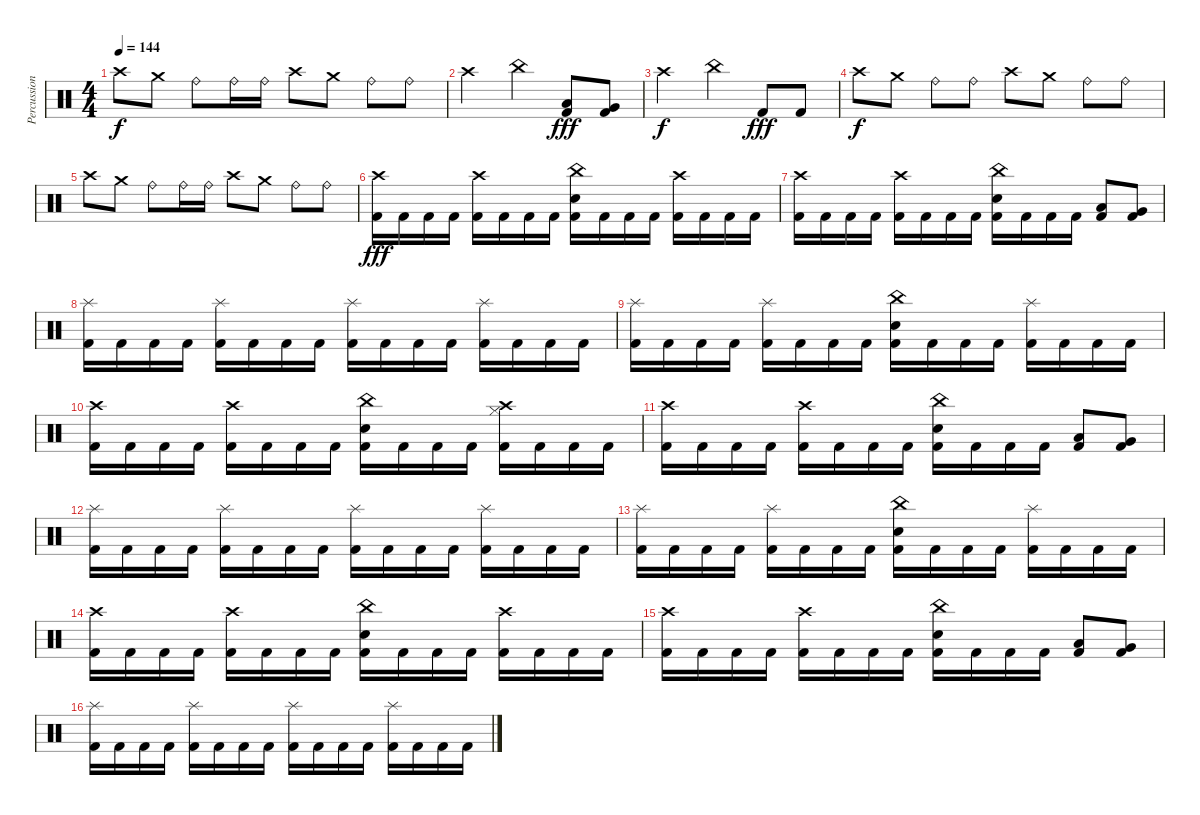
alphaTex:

\track ("Percussion" "Percussion") {instrument percussion}
\staff {score}
\articulation defaults
\ts (4 4)
\tempo 144
\clef neutral
\ks c "Crash high (hit)".8{dy f} "Crash medium (hit)".8 "Ride (bell)".8 "Ride (bell)".16 "Ride (bell)".16 "Crash high (hit)".8 "Crash medium (hit)".8 "Ride (bell)".8 "Ride (bell)".8
|
"Crash high (hit)".2 "China (hit)".4 ("Low Tom (hit)" "Kick (hit) 2").8{dy fff} ("Very Low Tom (hit)" "Kick (hit) 2").8 |
"Crash high (hit)".2{dy f} "China (hit)".4 "Kick (hit) 2".8{dy fff} "Kick (hit) 2".8 |
"Crash high (hit)".8{dy f} "Crash medium (hit)".8 "Ride (bell)".8 "Ride (bell)".8 "Crash high (hit)".8 "Crash medium (hit)".8 "Ride (bell)".8 "Ride (bell)".8 |
"Crash high (hit)".8 "Crash medium (hit)".8 "Ride (bell)".8 "Ride (bell)".16 "Ride (bell)".16 "Crash high (hit)".8 "Crash medium (hit)".8 "Ride (bell)".8 "Ride (bell)".8 |
("Crash high (hit)" "Kick (hit) 2").16{dy fff} "Kick (hit) 2".16 "Kick (hit) 2".16 "Kick (hit) 2".16 ("Crash high (hit)" "Kick (hit) 2").16 "Kick (hit) 2".16 "Kick (hit) 2".16 "Kick (hit) 2".16 ("China (hit)" "Electric Snare (hit)" "Kick (hit) 2").16 "Kick (hit) 2".16 "Kick (hit) 2".16 "Kick (hit) 2".16 ("Crash high (hit)" "Kick (hit) 2").16 "Kick (hit) 2".16 "Kick (hit) 2".16 "Kick (hit) 2".16 |
("Crash high (hit)" "Kick (hit) 2").16 "Kick (hit) 2".16 "Kick (hit) 2".16 "Kick (hit) 2".16 ("Crash high (hit)" "Kick (hit) 2").16 "Kick (hit) 2".16 "Kick (hit) 2".16 "Kick (hit) 2".16 ("China (hit)" "Electric Snare (hit)" "Kick (hit) 2").16 "Kick (hit) 2".16 "Kick (hit) 2".16 "Kick (hit) 2".16 ("Low Tom (hit)" "Kick (hit) 2").8 ("Very Low Tom (hit)" "Kick (hit) 2").8 |
("Splash (hit)" "Kick (hit) 2").16 "Kick (hit) 2".16 "Kick (hit) 2".16 "Kick (hit) 2".16 ("Splash (hit)" "Kick (hit) 2").16 "Kick (hit) 2".16 "Kick (hit) 2".16 "Kick (hit) 2".16 ("Splash (hit)" "Kick (hit) 2").16 "Kick (hit) 2".16 "Kick (hit) 2".16 "Kick (hit) 2".16 ("Splash (hit)" "Kick (hit) 2").16 "Kick (hit) 2".16 "Kick (hit) 2".16 "Kick (hit) 2".16 |
("Splash (hit)" "Kick (hit) 2").16{volume 11} "Kick (hit) 2".16 "Kick (hit) 2".16 "Kick (hit) 2".16 ("Splash (hit)" "Kick (hit) 2").16 "Kick (hit) 2".16 "Kick (hit) 2".16 "Kick (hit) 2".16 ("China (hit)" "Electric Snare (hit)" "Kick (hit) 2").16 "Kick (hit) 2".16 "Kick (hit) 2".16 "Kick (hit) 2".16 ("Splash (hit)" "Kick (hit) 2").16 "Kick (hit) 2".16 "Kick (hit) 2".16 "Kick (hit) 2".16 |
("Crash high (hit)" "Kick (hit) 2").16 "Kick (hit) 2".16 "Kick (hit) 2".16 "Kick (hit) 2".16 ("Crash high (hit)" "Kick (hit) 2").16 "Kick (hit) 2".16 "Kick (hit) 2".16 "Kick (hit) 2".16 ("China (hit)" "Electric Snare (hit)" "Kick (hit) 2").16 "Kick (hit) 2".16 "Kick (hit) 2".16 "Kick (hit) 2".16 ("Crash high (hit)" "Hi-Hat (closed)" "Kick (hit) 2").16 "Kick (hit) 2".16 "Kick (hit) 2".16 "Kick (hit) 2".16 |
("Crash high (hit)" "Kick (hit) 2").16{volume 10} "Kick (hit) 2".16 "Kick (hit) 2".16 "Kick (hit) 2".16 ("Crash high (hit)" "Kick (hit) 2").16 "Kick (hit) 2".16 "Kick (hit) 2".16 "Kick (hit) 2".16 ("China (hit)" "Electric Snare (hit)" "Kick (hit) 2").16 "Kick (hit) 2".16 "Kick (hit) 2".16 "Kick (hit) 2".16 ("Low Tom (hit)" "Kick (hit) 2").8 ("Very Low Tom (hit)" "Kick (hit) 2").8 |
("Splash (hit)" "Kick (hit) 2").16 "Kick (hit) 2".16 "Kick (hit) 2".16 "Kick (hit) 2".16 ("Splash (hit)" "Kick (hit) 2").16 "Kick (hit) 2".16 "Kick (hit) 2".16 "Kick (hit) 2".16 ("Splash (hit)" "Kick (hit) 2").16 "Kick (hit) 2".16 "Kick (hit) 2".16 "Kick (hit) 2".16 ("Splash (hit)" "Kick (hit) 2").16 "Kick (hit) 2".16 "Kick (hit) 2".16 "Kick (hit) 2".16 |
("Splash (hit)" "Kick (hit) 2").16{volume 8} "Kick (hit) 2".16 "Kick (hit) 2".16 "Kick (hit) 2".16 ("Splash (hit)" "Kick (hit) 2").16 "Kick (hit) 2".16 "Kick (hit) 2".16 "Kick (hit) 2".16 ("China (hit)" "Electric Snare (hit)" "Kick (hit) 2").16 "Kick (hit) 2".16 "Kick (hit) 2".16 "Kick (hit) 2".16 ("Splash (hit)" "Kick (hit) 2").16 "Kick (hit) 2".16 "Kick (hit) 2".16 "Kick (hit) 2".16 |
("Crash high (hit)" "Kick (hit) 2").16 "Kick (hit) 2".16 "Kick (hit) 2".16 "Kick (hit) 2".16 ("Crash high (hit)" "Kick (hit) 2").16 "Kick (hit) 2".16 "Kick (hit) 2".16 "Kick (hit) 2".16 ("China (hit)" "Electric Snare (hit)" "Kick (hit) 2").16 "Kick (hit) 2".16 "Kick (hit) 2".16 "Kick (hit) 2".16 ("Crash high (hit)" "Kick (hit) 2").16 "Kick (hit) 2".16 "Kick (hit) 2".16 "Kick (hit) 2".16 |
("Crash high (hit)" "Kick (hit) 2").16{volume 6} "Kick (hit) 2".16 "Kick (hit) 2".16 "Kick (hit) 2".16 ("Crash high (hit)" "Kick (hit) 2").16 "Kick (hit) 2".16 "Kick (hit) 2".16 "Kick (hit) 2".16 ("China (hit)" "Electric Snare (hit)" "Kick (hit) 2").16 "Kick (hit) 2".16 "Kick (hit) 2".16 "Kick (hit) 2".16 ("Low Tom (hit)" "Kick (hit) 2").8 ("Very Low Tom (hit)" "Kick (hit) 2").8 |
("Splash (hit)" "Kick (hit) 2").16 "Kick (hit) 2".16 "Kick (hit) 2".16 "Kick (hit) 2".16 ("Splash (hit)" "Kick (hit) 2").16 "Kick (hit) 2".16 "Kick (hit) 2".16 "Kick (hit) 2".16 ("Splash (hit)" "Kick (hit) 2").16 "Kick (hit) 2".16 "Kick (hit) 2".16 "Kick (hit) 2".16 ("Splash (hit)" "Kick (hit) 2").16 "Kick (hit) 2".16 "Kick (hit) 2".16 "Kick (hit) 2".16
